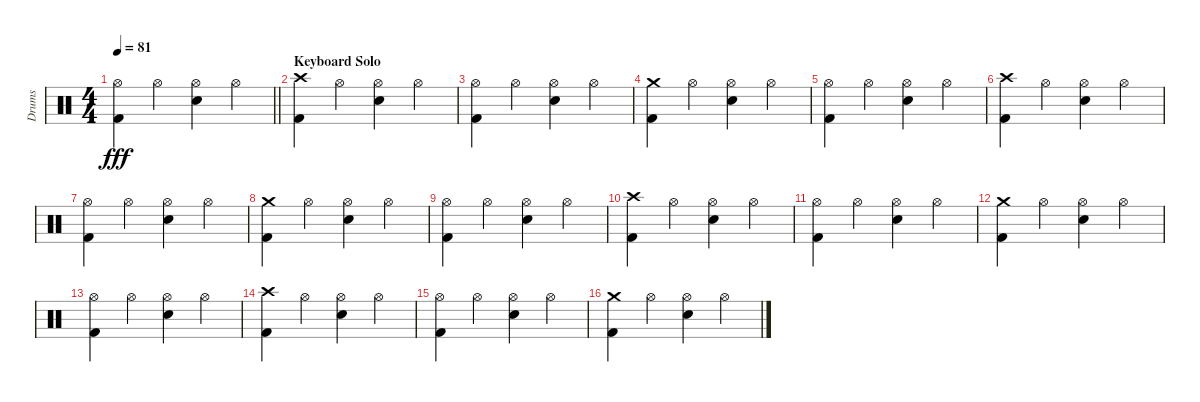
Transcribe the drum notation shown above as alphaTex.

\track ("Drums" "Drums") {instrument percussion}
\staff {score}
\articulation defaults
\ts (4 4)
\tempo 81
\clef neutral
\barLineRight lightlight
\ks c
("Hi-Hat (open)" "Kick (hit) 2").4{dy fff} "Hi-Hat (open)".4 ("Hi-Hat (open)" "Electric Snare (hit)").4 "Hi-Hat (open)".4 |
\section ("" "Keyboard Solo")
("Crash high (hit)" "Kick (hit) 2").4 "Hi-Hat (open)".4 ("Hi-Hat (open)" "Electric Snare (hit)").4 "Hi-Hat (open)".4 |
("Hi-Hat (open)" "Kick (hit) 2").4 "Hi-Hat (open)".4 ("Hi-Hat (open)" "Electric Snare (hit)").4 "Hi-Hat (open)".4 |
("Crash medium (hit)" "Kick (hit) 2").4 "Hi-Hat (open)".4 ("Hi-Hat (open)" "Electric Snare (hit)").4 "Hi-Hat (open)".4 |
("Hi-Hat (open)" "Kick (hit) 2").4 "Hi-Hat (open)".4 ("Hi-Hat (open)" "Electric Snare (hit)").4 "Hi-Hat (open)".4 |
("Crash high (hit)" "Kick (hit) 2").4 "Hi-Hat (open)".4 ("Hi-Hat (open)" "Electric Snare (hit)").4 "Hi-Hat (open)".4 |
("Hi-Hat (open)" "Kick (hit) 2").4 "Hi-Hat (open)".4 ("Hi-Hat (open)" "Electric Snare (hit)").4 "Hi-Hat (open)".4 |
("Crash medium (hit)" "Kick (hit) 2").4 "Hi-Hat (open)".4 ("Hi-Hat (open)" "Electric Snare (hit)").4 "Hi-Hat (open)".4 |
("Hi-Hat (open)" "Kick (hit) 2").4 "Hi-Hat (open)".4 ("Hi-Hat (open)" "Electric Snare (hit)").4 "Hi-Hat (open)".4 |
("Crash high (hit)" "Kick (hit) 2").4 "Hi-Hat (open)".4 ("Hi-Hat (open)" "Electric Snare (hit)").4 "Hi-Hat (open)".4 |
("Hi-Hat (open)" "Kick (hit) 2").4 "Hi-Hat (open)".4 ("Hi-Hat (open)" "Electric Snare (hit)").4 "Hi-Hat (open)".4 |
("Crash medium (hit)" "Kick (hit) 2").4 "Hi-Hat (open)".4 ("Hi-Hat (open)" "Electric Snare (hit)").4 "Hi-Hat (open)".4 |
("Hi-Hat (open)" "Kick (hit) 2").4 "Hi-Hat (open)".4 ("Hi-Hat (open)" "Electric Snare (hit)").4 "Hi-Hat (open)".4 |
("Crash high (hit)" "Kick (hit) 2").4 "Hi-Hat (open)".4 ("Hi-Hat (open)" "Electric Snare (hit)").4 "Hi-Hat (open)".4 |
("Hi-Hat (open)" "Kick (hit) 2").4 "Hi-Hat (open)".4 ("Hi-Hat (open)" "Electric Snare (hit)").4 "Hi-Hat (open)".4 |
("Crash medium (hit)" "Kick (hit) 2").4 "Hi-Hat (open)".4 ("Hi-Hat (open)" "Electric Snare (hit)").4 "Hi-Hat (open)".4
